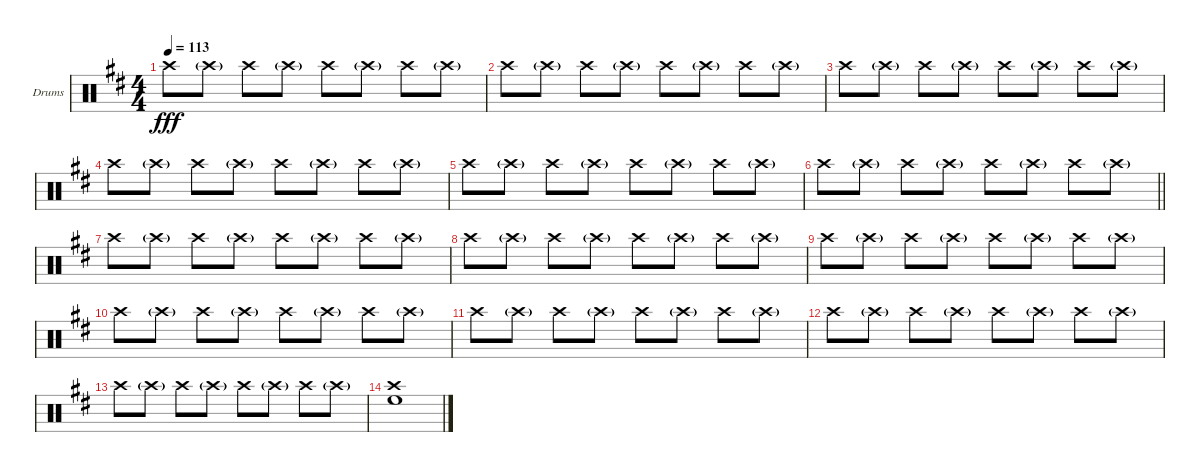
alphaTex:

\bracketExtendMode groupsimilarinstruments
\firstSystemTrackNameOrientation horizontal
\otherSystemsTrackNameOrientation horizontal
\track ("Crash" "Drums") {instrument percussion}
\staff {score}
\articulation defaults
\ts (4 4)
\tempo 113
\clef neutral
\scale
0.333333
\ks d "Crash high (hit)".8{dy fff} "Crash high (hit)"{g}.8 "Crash high (hit)".8 "Crash high (hit)"{g}.8 "Crash high (hit)".8 "Crash high (hit)"{g}.8 "Crash high (hit)".8 "Crash high (hit)"{g}.8
|
\scale
0.333333 "Crash high (hit)".8 "Crash high (hit)"{g}.8 "Crash high (hit)".8 "Crash high (hit)"{g}.8 "Crash high (hit)".8 "Crash high (hit)"{g}.8 "Crash high (hit)".8 "Crash high (hit)"{g}.8 |
\scale
0.333333 "Crash high (hit)".8 "Crash high (hit)"{g}.8 "Crash high (hit)".8 "Crash high (hit)"{g}.8 "Crash high (hit)".8 "Crash high (hit)"{g}.8 "Crash high (hit)".8 "Crash high (hit)"{g}.8 |
\scale
0.333333 "Crash high (hit)".8 "Crash high (hit)"{g}.8 "Crash high (hit)".8 "Crash high (hit)"{g}.8 "Crash high (hit)".8 "Crash high (hit)"{g}.8 "Crash high (hit)".8 "Crash high (hit)"{g}.8 |
\scale
0.333333 "Crash high (hit)".8 "Crash high (hit)"{g}.8 "Crash high (hit)".8 "Crash high (hit)"{g}.8 "Crash high (hit)".8 "Crash high (hit)"{g}.8 "Crash high (hit)".8 "Crash high (hit)"{g}.8 |
\scale
0.333333
\barLineRight lightlight "Crash high (hit)".8 "Crash high (hit)"{g}.8 "Crash high (hit)".8 "Crash high (hit)"{g}.8 "Crash high (hit)".8 "Crash high (hit)"{g}.8 "Crash high (hit)".8 "Crash high (hit)"{g}.8
|
\scale
0.333333 "Crash high (hit)".8 "Crash high (hit)"{g}.8 "Crash high (hit)".8 "Crash high (hit)"{g}.8 "Crash high (hit)".8 "Crash high (hit)"{g}.8 "Crash high (hit)".8 "Crash high (hit)"{g}.8 |
\scale
0.333333 "Crash high (hit)".8 "Crash high (hit)"{g}.8 "Crash high (hit)".8 "Crash high (hit)"{g}.8 "Crash high (hit)".8 "Crash high (hit)"{g}.8 "Crash high (hit)".8 "Crash high (hit)"{g}.8 |
\scale
0.333333 "Crash high (hit)".8 "Crash high (hit)"{g}.8 "Crash high (hit)".8 "Crash high (hit)"{g}.8 "Crash high (hit)".8 "Crash high (hit)"{g}.8 "Crash high (hit)".8 "Crash high (hit)"{g}.8 |
\scale
0.333333 "Crash high (hit)".8 "Crash high (hit)"{g}.8 "Crash high (hit)".8 "Crash high (hit)"{g}.8 "Crash high (hit)".8 "Crash high (hit)"{g}.8 "Crash high (hit)".8 "Crash high (hit)"{g}.8 |
\scale
0.333333 "Crash high (hit)".8 "Crash high (hit)"{g}.8 "Crash high (hit)".8 "Crash high (hit)"{g}.8 "Crash high (hit)".8 "Crash high (hit)"{g}.8 "Crash high (hit)".8 "Crash high (hit)"{g}.8 |
"Crash high (hit)".8 "Crash high (hit)"{g}.8 "Crash high (hit)".8 "Crash high (hit)"{g}.8 "Crash high (hit)".8 "Crash high (hit)"{g}.8 "Crash high (hit)".8 "Crash high (hit)"{g}.8 |
"Crash high (hit)".8 "Crash high (hit)"{g}.8 "Crash high (hit)".8 "Crash high (hit)"{g}.8 "Crash high (hit)".8 "Crash high (hit)"{g}.8 "Crash high (hit)".8 "Crash high (hit)"{g}.8 |
("Crash high (hit)" "High Floor Tom (hit)").1
